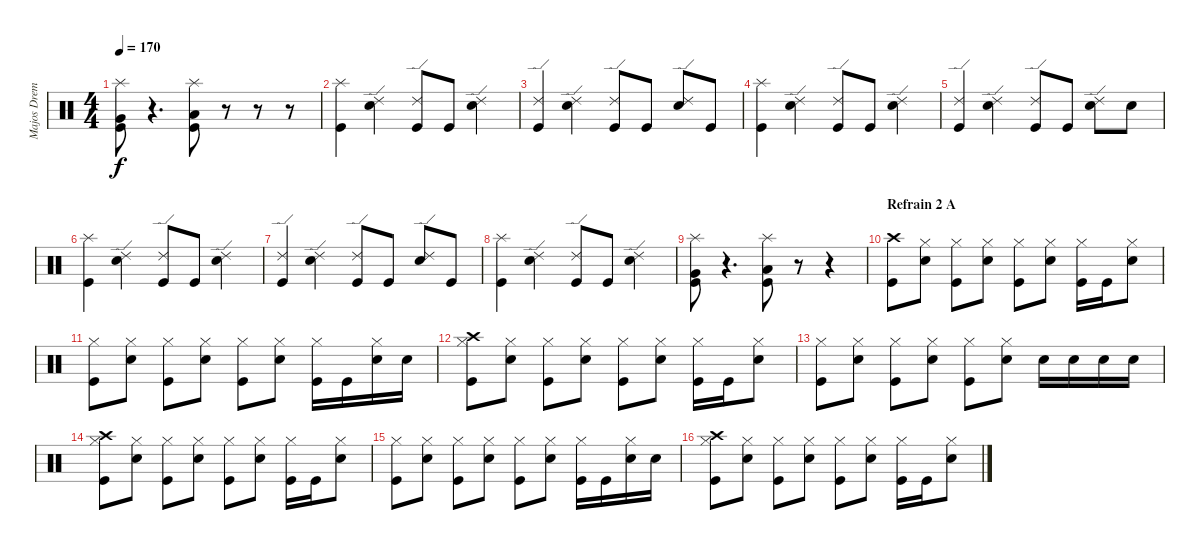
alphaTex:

\track ("Majos Dremmelei" "Majos Drem") {instrument percussion}
\staff {score}
\articulation defaults
\ts (4 4)
\tempo 170
\clef neutral
\ks c
("Splash (hit)" "Very Low Tom (hit)" "Kick (hit)").8{dy f} r.4{d} ("Splash (hit)" "Low Tom (hit)" "Kick (hit)").8 r.8 r.8 r.8 |
("Splash (hit)" "Kick (hit)").4 ("Ride (edge) 2" "Electric Snare (hit)").4 ("Ride (edge) 2" "Kick (hit)").8 "Kick (hit)".8 ("Ride (edge) 2" "Electric Snare (hit)").4 |
("Ride (edge) 2" "Kick (hit)").4 ("Ride (edge) 2" "Electric Snare (hit)").4 ("Ride (edge) 2" "Kick (hit)").8 "Kick (hit)".8 ("Ride (edge) 2" "Electric Snare (hit)").8 "Kick (hit)".8 |
("Splash (hit)" "Kick (hit)").4 ("Ride (edge) 2" "Electric Snare (hit)").4 ("Ride (edge) 2" "Kick (hit)").8 "Kick (hit)".8 ("Ride (edge) 2" "Electric Snare (hit)").4 |
("Ride (edge) 2" "Kick (hit)").4 ("Ride (edge) 2" "Electric Snare (hit)").4 ("Ride (edge) 2" "Kick (hit)").8 "Kick (hit)".8 ("Ride (edge) 2" "Electric Snare (hit)").8 "Electric Snare (hit)".8 |
("Splash (hit)" "Kick (hit)").4 ("Ride (edge) 2" "Electric Snare (hit)").4 ("Ride (edge) 2" "Kick (hit)").8 "Kick (hit)".8 ("Ride (edge) 2" "Electric Snare (hit)").4 |
("Ride (edge) 2" "Kick (hit)").4 ("Ride (edge) 2" "Electric Snare (hit)").4 ("Ride (edge) 2" "Kick (hit)").8 "Kick (hit)".8 ("Ride (edge) 2" "Electric Snare (hit)").8 "Kick (hit)".8 |
("Splash (hit)" "Kick (hit)").4 ("Ride (edge) 2" "Electric Snare (hit)").4 ("Ride (edge) 2" "Kick (hit)").8 "Kick (hit)".8 ("Ride (edge) 2" "Electric Snare (hit)").4 |
("Splash (hit)" "Very Low Tom (hit)" "Kick (hit)").8 r.4{d} ("Splash (hit)" "Low Tom (hit)" "Kick (hit)").8 r.8 r.4 |
\section ("" "Refrain 2 A")
("Crash high (hit)" "Kick (hit)").8 ("Hi-Hat (closed)" "Electric Snare (hit)").8 ("Hi-Hat (closed)" "Kick (hit)").8 ("Hi-Hat (closed)" "Electric Snare (hit)").8 ("Hi-Hat (closed)" "Kick (hit)").8 ("Hi-Hat (closed)" "Electric Snare (hit)").8 ("Hi-Hat (closed)" "Kick (hit)").16 "Kick (hit)".16 ("Hi-Hat (closed)" "Electric Snare (hit)").8 |
("Hi-Hat (closed)" "Kick (hit)").8 ("Hi-Hat (closed)" "Electric Snare (hit)").8 ("Hi-Hat (closed)" "Kick (hit)").8 ("Hi-Hat (closed)" "Electric Snare (hit)").8 ("Hi-Hat (closed)" "Kick (hit)").8 ("Hi-Hat (closed)" "Electric Snare (hit)").8 ("Hi-Hat (closed)" "Kick (hit)").16 "Kick (hit)".16 ("Hi-Hat (closed)" "Electric Snare (hit)").16 "Electric Snare (hit)".16 |
("Crash high (hit)" "Hi-Hat (closed)" "Kick (hit)").8 ("Hi-Hat (closed)" "Electric Snare (hit)").8 ("Hi-Hat (closed)" "Kick (hit)").8 ("Hi-Hat (closed)" "Electric Snare (hit)").8 ("Hi-Hat (closed)" "Kick (hit)").8 ("Hi-Hat (closed)" "Electric Snare (hit)").8 ("Hi-Hat (closed)" "Kick (hit)").16 "Kick (hit)".16 ("Hi-Hat (closed)" "Electric Snare (hit)").8 |
("Hi-Hat (closed)" "Kick (hit)").8 ("Hi-Hat (closed)" "Electric Snare (hit)").8 ("Hi-Hat (closed)" "Kick (hit)").8 ("Hi-Hat (closed)" "Electric Snare (hit)").8 ("Hi-Hat (closed)" "Kick (hit)").8 ("Hi-Hat (closed)" "Electric Snare (hit)").8 "Electric Snare (hit)".16 "Electric Snare (hit)".16 "Electric Snare (hit)".16 "Electric Snare (hit)".16 |
("Crash high (hit)" "Hi-Hat (closed)" "Kick (hit)").8 ("Hi-Hat (closed)" "Electric Snare (hit)").8 ("Hi-Hat (closed)" "Kick (hit)").8 ("Hi-Hat (closed)" "Electric Snare (hit)").8 ("Hi-Hat (closed)" "Kick (hit)").8 ("Hi-Hat (closed)" "Electric Snare (hit)").8 ("Hi-Hat (closed)" "Kick (hit)").16 "Kick (hit)".16 ("Hi-Hat (closed)" "Electric Snare (hit)").8 |
("Hi-Hat (closed)" "Kick (hit)").8 ("Hi-Hat (closed)" "Electric Snare (hit)").8 ("Hi-Hat (closed)" "Kick (hit)").8 ("Hi-Hat (closed)" "Electric Snare (hit)").8 ("Hi-Hat (closed)" "Kick (hit)").8 ("Hi-Hat (closed)" "Electric Snare (hit)").8 ("Hi-Hat (closed)" "Kick (hit)").16 "Kick (hit)".16 ("Hi-Hat (closed)" "Electric Snare (hit)").16 "Electric Snare (hit)".16 |
("Crash high (hit)" "Hi-Hat (closed)" "Kick (hit)").8 ("Hi-Hat (closed)" "Electric Snare (hit)").8 ("Hi-Hat (closed)" "Kick (hit)").8 ("Hi-Hat (closed)" "Electric Snare (hit)").8 ("Hi-Hat (closed)" "Kick (hit)").8 ("Hi-Hat (closed)" "Electric Snare (hit)").8 ("Hi-Hat (closed)" "Kick (hit)").16 "Kick (hit)".16 ("Hi-Hat (closed)" "Electric Snare (hit)").8
